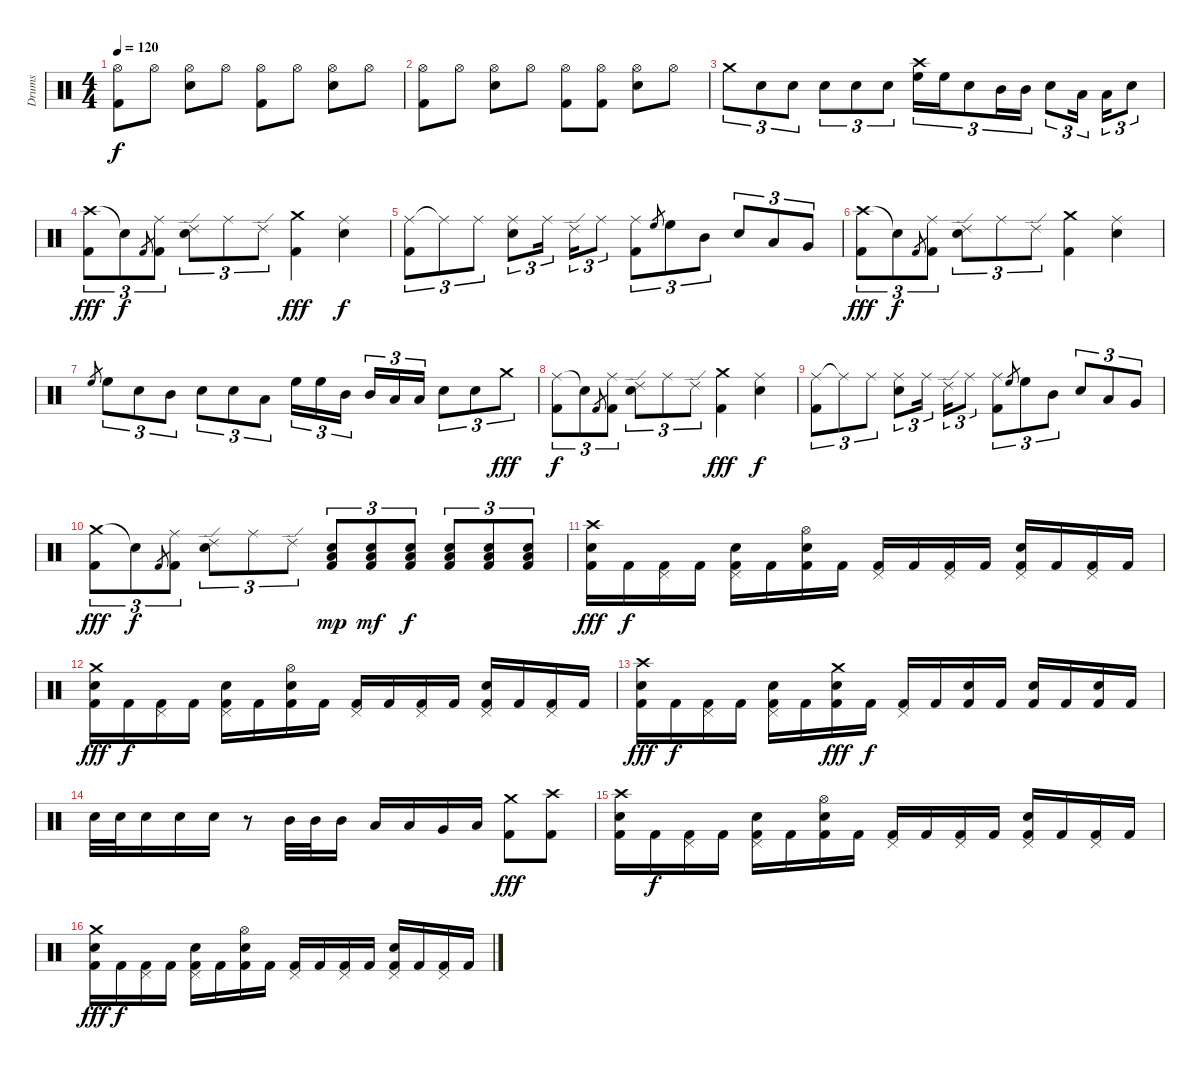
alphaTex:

\track ("Drums" "Drums") {instrument percussion}
\staff {score}
\articulation defaults
\ts (4 4)
\tempo 120
\clef neutral
\ks c
("Hi-Hat (open)" "Kick (hit) 2").8{dy f} "Hi-Hat (open)".8 ("Hi-Hat (open)" "Electric Snare (hit)").8 "Hi-Hat (open)".8 ("Hi-Hat (open)" "Kick (hit) 2").8 "Hi-Hat (open)".8 ("Hi-Hat (open)" "Electric Snare (hit)").8 "Hi-Hat (open)".8 |
("Hi-Hat (open)" "Kick (hit) 2").8 "Hi-Hat (open)".8 ("Hi-Hat (open)" "Electric Snare (hit)").8 "Hi-Hat (open)".8 ("Hi-Hat (open)" "Kick (hit) 2").8 ("Hi-Hat (open)" "Kick (hit) 2").8 ("Hi-Hat (open)" "Electric Snare (hit)").8 "Hi-Hat (open)".8 |
"Crash medium (hit)".8{tu (3 2)} "Electric Snare (hit)".8{tu (3 2)} "Electric Snare (hit)".8{tu (3 2)} "Electric Snare (hit)".8{tu (3 2)} "Electric Snare (hit)".8{tu (3 2)} "Electric Snare (hit)".8{tu (3 2)} ("Crash high (hit)" "High Floor Tom (hit)").16{tu (3 2)} "High Floor Tom (hit)".16{tu (3 2)} "Electric Snare (hit)".8{tu (3 2)} "Mid Tom (hit)".16{tu (3 2)} "Mid Tom (hit)".16{tu (3 2)} "Electric Snare (hit)".8{tu (3 2)} "Low Tom (hit)".16{tu (3 2)} "Low Tom (hit)".16{tu (3 2)} "Electric Snare (hit)".8{tu (3 2)} |
("Crash high (hit)" "Kick (hit) 2").8{tu (3 2) dy fff} "Snare (hit)"{t}.8{tu (3 2) dy f} "Kick (hit) 2".8{gr} ("Ride (middle)" "Kick (hit) 2").8{tu (3 2)} ("Ride (edge) 2" "Electric Snare (hit)").8{tu (3 2)} "Ride (middle)".8{tu (3 2)} "Ride (edge) 2".8{tu (3 2)} ("Crash medium (hit)" "Kick (hit) 2").4{dy fff} ("Ride (middle)" "Electric Snare (hit)").4{dy f} |
("Ride (middle)" "Kick (hit) 2").8{tu (3 2)} "Ride (middle)"{t}.8{tu (3 2)} "Ride (middle)".8{tu (3 2)} ("Ride (middle)" "Electric Snare (hit)").8{tu (3 2)} "Ride (middle)".16{tu (3 2)} "Ride (edge) 2".16{tu (3 2)} "Ride (middle)".8{tu (3 2)} ("Ride (middle)" "Kick (hit) 2").8{tu (3 2)} "High Floor Tom (hit)".8{gr} "High Floor Tom (hit)".8{tu (3 2)} "Mid Tom (hit)".8{tu (3 2)} "Electric Snare (hit)".8{tu (3 2)} "Low Tom (hit)".8{tu (3 2)} "Very Low Tom (hit)".8{tu (3 2)} |
("Crash high (hit)" "Kick (hit) 2").8{tu (3 2) dy fff} "Snare (hit)"{t}.8{tu (3 2) dy f} "Kick (hit) 2".8{gr} ("Ride (middle)" "Kick (hit) 2").8{tu (3 2)} ("Ride (edge) 2" "Electric Snare (hit)").8{tu (3 2)} "Ride (middle)".8{tu (3 2)} "Ride (edge) 2".8{tu (3 2)} ("Crash medium (hit)" "Kick (hit) 2").4 ("Ride (middle)" "Electric Snare (hit)").4 |
"High Floor Tom (hit)".8{gr} "High Floor Tom (hit)".8{tu (3 2)} "Electric Snare (hit)".8{tu (3 2)} "Mid Tom (hit)".8{tu (3 2)} "Electric Snare (hit)".8{tu (3 2)} "Electric Snare (hit)".8{tu (3 2)} "Low Tom (hit)".8{tu (3 2)} "High Floor Tom (hit)".16{tu (3 2)} "High Floor Tom (hit)".16{tu (3 2)} "Mid Tom (hit)".16{tu (3 2)} "Mid Tom (hit)".16{tu (3 2)} "Low Tom (hit)".16{tu (3 2)} "Low Tom (hit)".16{tu (3 2)} "Electric Snare (hit)".8{tu (3 2)} "Electric Snare (hit)".8{tu (3 2)} "Crash medium (hit)".8{tu (3 2) dy fff} |
("Ride (middle)" "Kick (hit) 2").8{tu (3 2) dy f} "Snare (hit)"{t}.8{tu (3 2)} "Kick (hit) 2".8{gr} ("Ride (middle)" "Kick (hit) 2").8{tu (3 2)} ("Ride (edge) 2" "Electric Snare (hit)").8{tu (3 2)} "Ride (middle)".8{tu (3 2)} "Ride (edge) 2".8{tu (3 2)} ("Crash medium (hit)" "Kick (hit) 2").4{dy fff} ("Ride (middle)" "Electric Snare (hit)").4{dy f} |
("Ride (middle)" "Kick (hit) 2").8{tu (3 2)} "Ride (middle)"{t}.8{tu (3 2)} "Ride (middle)".8{tu (3 2)} ("Ride (middle)" "Electric Snare (hit)").8{tu (3 2)} "Ride (middle)".16{tu (3 2)} "Ride (edge) 2".16{tu (3 2)} "Ride (middle)".8{tu (3 2)} ("Ride (middle)" "Kick (hit) 2").8{tu (3 2)} "High Floor Tom (hit)".8{gr} "High Floor Tom (hit)".8{tu (3 2)} "Mid Tom (hit)".8{tu (3 2)} "Electric Snare (hit)".8{tu (3 2)} "Low Tom (hit)".8{tu (3 2)} "Very Low Tom (hit)".8{tu (3 2)} |
("Crash medium (hit)" "Kick (hit) 2").8{tu (3 2) dy fff} "Snare (hit)"{t}.8{tu (3 2) dy f} "Kick (hit) 2".8{gr} ("Ride (middle)" "Kick (hit) 2").8{tu (3 2)} ("Ride (edge) 2" "Electric Snare (hit)").8{tu (3 2)} "Ride (middle)".8{tu (3 2)} "Ride (edge) 2".8{tu (3 2)} ("Electric Snare (hit)" "Low Tom (hit)" "Kick (hit) 2").8{tu (3 2) dy mp} ("Electric Snare (hit)" "Low Tom (hit)" "Kick (hit) 2").8{tu (3 2) dy mf} ("Electric Snare (hit)" "Low Tom (hit)" "Kick (hit) 2").8{tu (3 2) dy f} ("Electric Snare (hit)" "Low Tom (hit)" "Kick (hit) 2").8{tu (3 2)} ("Electric Snare (hit)" "Low Tom (hit)" "Kick (hit) 2").8{tu (3 2)} ("Electric Snare (hit)" "Low Tom (hit)" "Kick (hit) 2").8{tu (3 2)} |
("Crash high (hit)" "Electric Snare (hit)" "Kick (hit) 2").16{dy fff} "Kick (hit) 2".16{dy f} ("Pedal Hi-Hat (hit)" "Kick (hit) 2").16 "Kick (hit) 2".16 ("Pedal Hi-Hat (hit)" "Electric Snare (hit)" "Kick (hit) 2").16 "Kick (hit) 2".16 ("Hi-Hat (open)" "Electric Snare (hit)" "Kick (hit) 2").16 "Kick (hit) 2".16 ("Pedal Hi-Hat (hit)" "Kick (hit) 2").16 "Kick (hit) 2".16 ("Pedal Hi-Hat (hit)" "Kick (hit) 2").16 "Kick (hit) 2".16 ("Pedal Hi-Hat (hit)" "Electric Snare (hit)" "Kick (hit) 2").16 "Kick (hit) 2".16 ("Pedal Hi-Hat (hit)" "Kick (hit) 2").16 "Kick (hit) 2".16 |
("Crash medium (hit)" "Electric Snare (hit)" "Kick (hit) 2").16{dy fff} "Kick (hit) 2".16{dy f} ("Pedal Hi-Hat (hit)" "Kick (hit) 2").16 "Kick (hit) 2".16 ("Pedal Hi-Hat (hit)" "Electric Snare (hit)" "Kick (hit) 2").16 "Kick (hit) 2".16 ("Hi-Hat (open)" "Electric Snare (hit)" "Kick (hit) 2").16 "Kick (hit) 2".16 ("Pedal Hi-Hat (hit)" "Kick (hit) 2").16 "Kick (hit) 2".16 ("Pedal Hi-Hat (hit)" "Kick (hit) 2").16 "Kick (hit) 2".16 ("Pedal Hi-Hat (hit)" "Electric Snare (hit)" "Kick (hit) 2").16 "Kick (hit) 2".16 ("Pedal Hi-Hat (hit)" "Kick (hit) 2").16 "Kick (hit) 2".16 |
("Crash high (hit)" "Electric Snare (hit)" "Kick (hit) 2").16{dy fff} "Kick (hit) 2".16{dy f} ("Pedal Hi-Hat (hit)" "Kick (hit) 2").16 "Kick (hit) 2".16 ("Pedal Hi-Hat (hit)" "Electric Snare (hit)" "Kick (hit) 2").16 "Kick (hit) 2".16 ("Crash medium (hit)" "Electric Snare (hit)" "Kick (hit) 2").16{dy fff} "Kick (hit) 2".16{dy f} ("Pedal Hi-Hat (hit)" "Kick (hit) 2").16 "Kick (hit) 2".16 ("Electric Snare (hit)" "Kick (hit) 2").16 "Kick (hit) 2".16 ("Electric Snare (hit)" "Kick (hit) 2").16 "Kick (hit) 2".16 ("Electric Snare (hit)" "Kick (hit) 2").16 "Kick (hit) 2".16 |
"Electric Snare (hit)".32 "Electric Snare (hit)".32 "Electric Snare (hit)".16 "Electric Snare (hit)".16 "Electric Snare (hit)".16 r.8 "Mid Tom (hit)".32 "Mid Tom (hit)".32 "Mid Tom (hit)".16 "Low Tom (hit)".16 "Low Tom (hit)".16 "Very Low Tom (hit)".16 "Low Floor Tom (hit)".16 ("Crash medium (hit)" "Kick (hit) 2").8{dy fff} ("Crash high (hit)" "Kick (hit) 2").8 |
("Crash high (hit)" "Electric Snare (hit)" "Kick (hit) 2").16 "Kick (hit) 2".16{dy f} ("Pedal Hi-Hat (hit)" "Kick (hit) 2").16 "Kick (hit) 2".16 ("Pedal Hi-Hat (hit)" "Electric Snare (hit)" "Kick (hit) 2").16 "Kick (hit) 2".16 ("Hi-Hat (open)" "Electric Snare (hit)" "Kick (hit) 2").16 "Kick (hit) 2".16 ("Pedal Hi-Hat (hit)" "Kick (hit) 2").16 "Kick (hit) 2".16 ("Pedal Hi-Hat (hit)" "Kick (hit) 2").16 "Kick (hit) 2".16 ("Pedal Hi-Hat (hit)" "Electric Snare (hit)" "Kick (hit) 2").16 "Kick (hit) 2".16 ("Pedal Hi-Hat (hit)" "Kick (hit) 2").16 "Kick (hit) 2".16 |
("Crash medium (hit)" "Electric Snare (hit)" "Kick (hit) 2").16{dy fff} "Kick (hit) 2".16{dy f} ("Pedal Hi-Hat (hit)" "Kick (hit) 2").16 "Kick (hit) 2".16 ("Pedal Hi-Hat (hit)" "Electric Snare (hit)" "Kick (hit) 2").16 "Kick (hit) 2".16 ("Hi-Hat (open)" "Electric Snare (hit)" "Kick (hit) 2").16 "Kick (hit) 2".16 ("Pedal Hi-Hat (hit)" "Kick (hit) 2").16 "Kick (hit) 2".16 ("Pedal Hi-Hat (hit)" "Kick (hit) 2").16 "Kick (hit) 2".16 ("Pedal Hi-Hat (hit)" "Electric Snare (hit)" "Kick (hit) 2").16 "Kick (hit) 2".16 ("Pedal Hi-Hat (hit)" "Kick (hit) 2").16 "Kick (hit) 2".16
